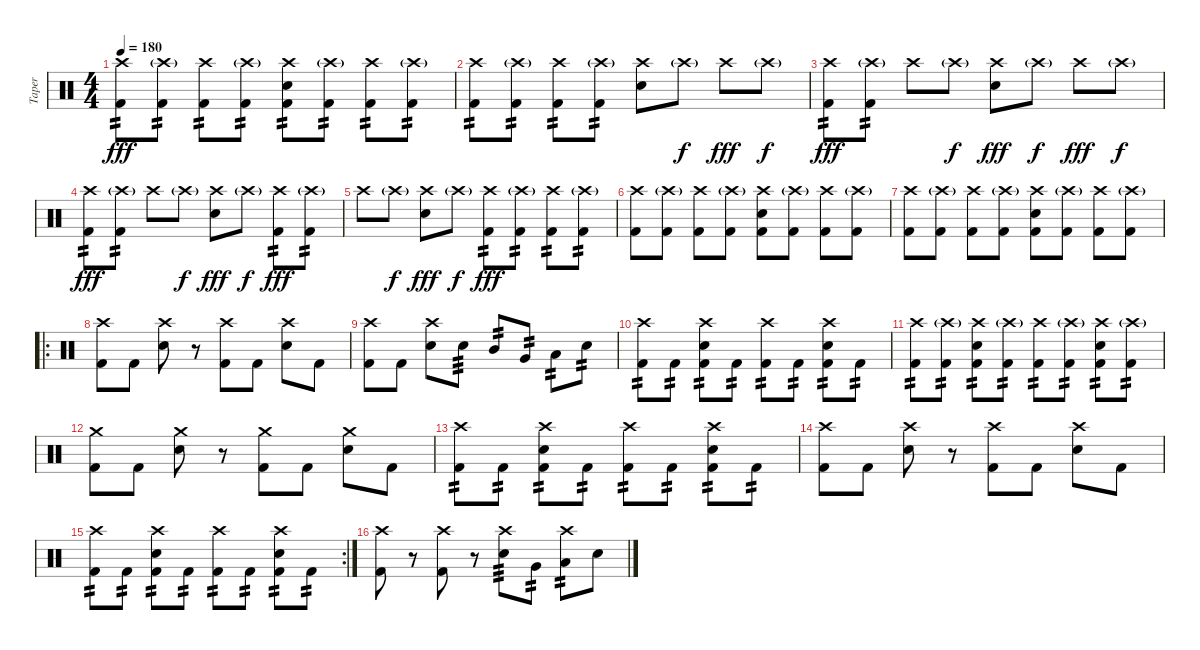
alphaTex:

\track ("Taper" "Taper") {instrument percussion}
\staff {score}
\articulation defaults
\ts (4 4)
\tempo 180
\clef neutral
\ks c
("Crash high (hit)" "Kick (hit) 2").8{tp 2 dy fff} ("Crash high (hit)"{g} "Kick (hit) 2").8{tp 2} ("Crash high (hit)" "Kick (hit) 2").8{tp 2} ("Crash high (hit)"{g} "Kick (hit) 2").8{tp 2} ("Crash high (hit)" "Snare (hit) 2" "Kick (hit) 2").8{tp 2} ("Crash high (hit)"{g} "Kick (hit) 2").8{tp 2} ("Crash high (hit)" "Kick (hit) 2").8{tp 2} ("Crash high (hit)"{g} "Kick (hit) 2").8{tp 2} |
("Crash high (hit)" "Kick (hit) 2").8{tp 2} ("Crash high (hit)"{g} "Kick (hit) 2").8{tp 2} ("Crash high (hit)" "Kick (hit) 2").8{tp 2} ("Crash high (hit)"{g} "Kick (hit) 2").8{tp 2} ("Crash high (hit)" "Snare (hit) 2").8 "Crash high (hit)"{g}.8{dy f} "Crash high (hit)".8{dy fff} "Crash high (hit)"{g}.8{dy f} |
("Crash high (hit)" "Kick (hit) 2").8{tp 2 dy fff} ("Crash high (hit)"{g} "Kick (hit) 2").8{tp 2} "Crash high (hit)".8 "Crash high (hit)"{g}.8{dy f} ("Crash high (hit)" "Snare (hit) 2").8{dy fff} "Crash high (hit)"{g}.8{dy f} "Crash high (hit)".8{dy fff} "Crash high (hit)"{g}.8{dy f} |
("Crash high (hit)" "Kick (hit) 2").8{tp 2 dy fff} ("Crash high (hit)"{g} "Kick (hit) 2").8{tp 2} "Crash high (hit)".8 "Crash high (hit)"{g}.8{dy f} ("Crash high (hit)" "Snare (hit) 2").8{dy fff} "Crash high (hit)"{g}.8{dy f} ("Crash high (hit)" "Kick (hit) 2").8{tp 2 dy fff} ("Crash high (hit)"{g} "Kick (hit) 2").8{tp 2} |
"Crash high (hit)".8 "Crash high (hit)"{g}.8{dy f} ("Crash high (hit)" "Snare (hit) 2").8{dy fff} "Crash high (hit)"{g}.8{dy f} ("Crash high (hit)" "Kick (hit) 2").8{tp 2 dy fff} ("Crash high (hit)"{g} "Kick (hit) 2").8{tp 2} ("Crash high (hit)" "Kick (hit) 2").8{tp 2} ("Crash high (hit)"{g} "Kick (hit) 2").8{tp 2} |
("Crash high (hit)" "Kick (hit) 2").8 ("Crash high (hit)"{g} "Kick (hit) 2").8 ("Crash high (hit)" "Kick (hit) 2").8 ("Crash high (hit)"{g} "Kick (hit) 2").8 ("Crash high (hit)" "Snare (hit) 2" "Kick (hit) 2").8 ("Crash high (hit)"{g} "Kick (hit) 2").8 ("Crash high (hit)" "Kick (hit) 2").8 ("Crash high (hit)"{g} "Kick (hit) 2").8 |
("Crash high (hit)" "Kick (hit) 2").8 ("Crash high (hit)"{g} "Kick (hit) 2").8 ("Crash high (hit)" "Kick (hit) 2").8 ("Crash high (hit)"{g} "Kick (hit) 2").8 ("Crash high (hit)" "Snare (hit) 2" "Kick (hit) 2").8 ("Crash high (hit)"{g} "Kick (hit) 2").8 ("Crash high (hit)" "Kick (hit) 2").8 ("Crash high (hit)"{g} "Kick (hit) 2").8 |
\ro
("Crash high (hit)" "Kick (hit) 2").8 "Kick (hit) 2".8 ("Crash high (hit)" "Snare (hit) 2").8 r.8 ("Crash high (hit)" "Kick (hit) 2").8 "Kick (hit) 2".8 ("Crash high (hit)" "Snare (hit) 2").8 "Kick (hit) 2".8 |
("Crash high (hit)" "Kick (hit) 2").8 "Kick (hit) 2".8 ("Crash high (hit)" "Snare (hit) 2").8 "Snare (hit) 2".8{tp 3} "Mid Tom (hit)".8{tp 2} "Very Low Tom (hit)".8{tp 2} "Low Floor Tom (hit)".8{tp 2} "Snare (hit) 2".8{tp 2} |
("Crash high (hit)" "Kick (hit) 2").8{tp 2} "Kick (hit) 2".8{tp 2} ("Crash high (hit)" "Snare (hit) 2" "Kick (hit) 2").8{tp 2} "Kick (hit) 2".8{tp 2} ("Crash high (hit)" "Kick (hit) 2").8{tp 2} "Kick (hit) 2".8{tp 2} ("Crash high (hit)" "Snare (hit) 2" "Kick (hit) 2").8{tp 2} "Kick (hit) 2".8{tp 2} |
("Crash high (hit)" "Kick (hit) 2").8{tp 2} ("Crash high (hit)"{g} "Kick (hit) 2").8{tp 2} ("Crash high (hit)" "Snare (hit) 2" "Kick (hit) 2").8{tp 2} ("Crash high (hit)"{g} "Kick (hit) 2").8{tp 2} ("Crash high (hit)" "Kick (hit) 2").8{tp 2} ("Crash high (hit)"{g} "Kick (hit) 2").8{tp 2} ("Crash high (hit)" "Snare (hit) 2" "Kick (hit) 2").8{tp 2} ("Crash high (hit)"{g} "Kick (hit) 2").8{tp 2} |
("Crash medium (hit)" "Kick (hit) 2").8 "Kick (hit) 2".8 ("Crash medium (hit)" "Snare (hit) 2").8 r.8 ("Crash medium (hit)" "Kick (hit) 2").8 "Kick (hit) 2".8 ("Crash medium (hit)" "Snare (hit) 2").8 "Kick (hit) 2".8 |
("Crash high (hit)" "Kick (hit) 2").8{tp 2} "Kick (hit) 2".8{tp 2} ("Crash high (hit)" "Snare (hit) 2" "Kick (hit) 2").8{tp 2} "Kick (hit) 2".8{tp 2} ("Crash high (hit)" "Kick (hit) 2").8{tp 2} "Kick (hit) 2".8{tp 2} ("Crash high (hit)" "Snare (hit) 2" "Kick (hit) 2").8{tp 2} "Kick (hit) 2".8{tp 2} |
("Crash high (hit)" "Kick (hit) 2").8 "Kick (hit) 2".8 ("Crash high (hit)" "Snare (hit) 2").8 r.8 ("Crash high (hit)" "Kick (hit) 2").8 "Kick (hit) 2".8 ("Crash high (hit)" "Snare (hit) 2").8 "Kick (hit) 2".8 |
\rc 2
("Crash high (hit)" "Kick (hit) 2").8{tp 2} "Kick (hit) 2".8{tp 2} ("Crash high (hit)" "Snare (hit) 2" "Kick (hit) 2").8{tp 2} "Kick (hit) 2".8{tp 2} ("Crash high (hit)" "Kick (hit) 2").8{tp 2} "Kick (hit) 2".8{tp 2} ("Crash high (hit)" "Snare (hit) 2" "Kick (hit) 2").8{tp 2} "Kick (hit) 2".8{tp 2} |
("Crash high (hit)" "Kick (hit) 2").8 r.8 ("Crash high (hit)" "Kick (hit) 2").8 r.8 ("Crash high (hit)" "Snare (hit) 2").8{tp 3} "Very Low Tom (hit)".8{tp 2} ("Crash high (hit)" "Low Floor Tom (hit)").8{tp 2} "Snare (hit) 2".8
